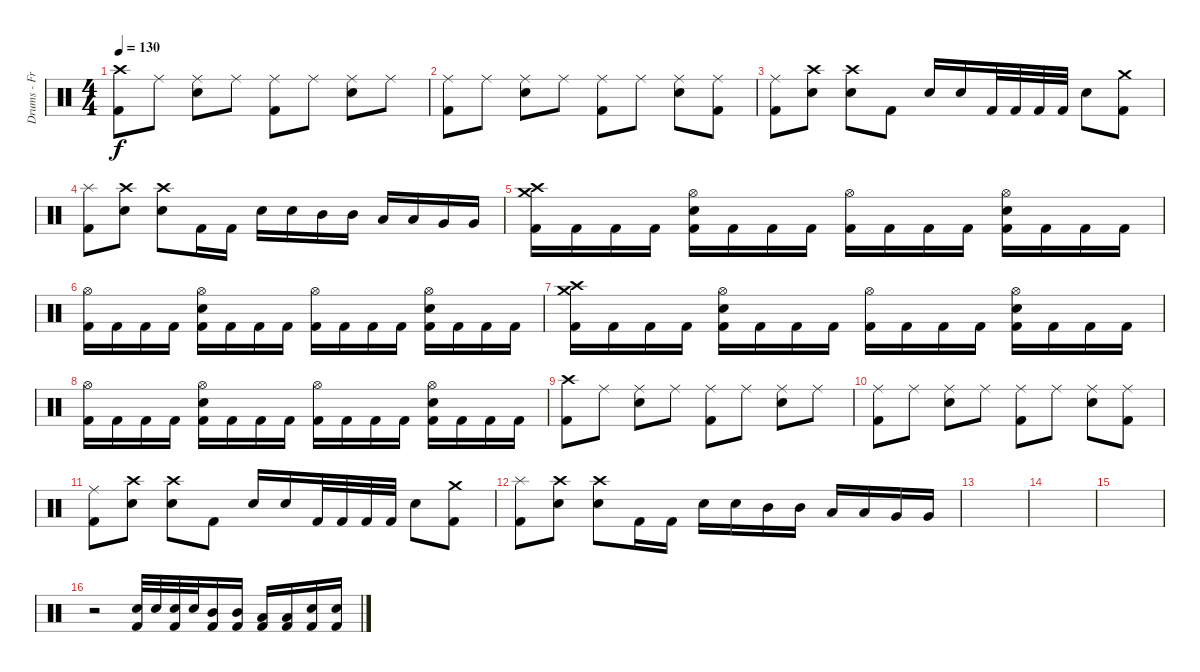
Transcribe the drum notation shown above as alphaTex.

\track ("Drums - Fredrik Andersson" "Drums - Fr") {instrument percussion}
\staff {score}
\articulation defaults
\ts (4 4)
\tempo 130
\clef neutral
\ks c
("Kick (hit) 2" "Crash high (hit)").8{dy f} "Ride (middle)".8 ("Snare (hit) 2" "Ride (middle)").8 "Ride (middle)".8 ("Kick (hit) 2" "Ride (middle)").8 "Ride (middle)".8 ("Snare (hit) 2" "Ride (middle)").8 "Ride (middle)".8 |
("Kick (hit) 2" "Ride (middle)").8 "Ride (middle)".8 ("Snare (hit) 2" "Ride (middle)").8 "Ride (middle)".8 ("Kick (hit) 2" "Ride (middle)").8 "Ride (middle)".8 ("Snare (hit) 2" "Ride (middle)").8 ("Kick (hit) 2" "Ride (middle)").8 |
("Ride (middle)" "Kick (hit) 2").8 ("Snare (hit) 2" "Crash high (hit)").8 ("Snare (hit) 2" "Crash high (hit)").8 "Kick (hit) 2".8 "Snare (hit) 2".16 "Snare (hit) 2".16 "Kick (hit) 2".32 "Kick (hit) 2".32 "Kick (hit) 2".32 "Kick (hit) 2".32 "Snare (hit) 2".8 ("Crash medium (hit)" "Kick (hit) 2").8 |
("Kick (hit) 2" "Splash (hit)").8 ("Snare (hit) 2" "Crash high (hit)").8 ("Snare (hit) 2" "Crash high (hit)").8 "Kick (hit) 2".16 "Kick (hit) 2".16 "Snare (hit) 2".16 "Snare (hit) 2".16 "Mid Tom (hit)".16 "Mid Tom (hit)".16 "Low Tom (hit)".16 "Low Tom (hit)".16 "Very Low Tom (hit)".16 "Very Low Tom (hit)".16 |
("Kick (hit) 2" "Crash high (hit)" "Crash medium (hit)").16 "Kick (hit) 2".16 "Kick (hit) 2".16 "Kick (hit) 2".16 ("Kick (hit) 2" "Snare (hit) 2" "Hi-Hat (open)").16 "Kick (hit) 2".16 "Kick (hit) 2".16 "Kick (hit) 2".16 ("Kick (hit) 2" "Hi-Hat (open)").16 "Kick (hit) 2".16 "Kick (hit) 2".16 "Kick (hit) 2".16 ("Kick (hit) 2" "Snare (hit) 2" "Hi-Hat (open)").16 "Kick (hit) 2".16 "Kick (hit) 2".16 "Kick (hit) 2".16 |
("Kick (hit) 2" "Hi-Hat (open)").16 "Kick (hit) 2".16 "Kick (hit) 2".16 "Kick (hit) 2".16 ("Kick (hit) 2" "Snare (hit) 2" "Hi-Hat (open)").16 "Kick (hit) 2".16 "Kick (hit) 2".16 "Kick (hit) 2".16 ("Kick (hit) 2" "Hi-Hat (open)").16 "Kick (hit) 2".16 "Kick (hit) 2".16 "Kick (hit) 2".16 ("Kick (hit) 2" "Snare (hit) 2" "Hi-Hat (open)").16 "Kick (hit) 2".16 "Kick (hit) 2".16 "Kick (hit) 2".16 |
("Kick (hit) 2" "Crash high (hit)" "Crash medium (hit)").16 "Kick (hit) 2".16 "Kick (hit) 2".16 "Kick (hit) 2".16 ("Kick (hit) 2" "Snare (hit) 2" "Hi-Hat (open)").16 "Kick (hit) 2".16 "Kick (hit) 2".16 "Kick (hit) 2".16 ("Kick (hit) 2" "Hi-Hat (open)").16 "Kick (hit) 2".16 "Kick (hit) 2".16 "Kick (hit) 2".16 ("Kick (hit) 2" "Snare (hit) 2" "Hi-Hat (open)").16 "Kick (hit) 2".16 "Kick (hit) 2".16 "Kick (hit) 2".16 |
("Kick (hit) 2" "Hi-Hat (open)").16 "Kick (hit) 2".16 "Kick (hit) 2".16 "Kick (hit) 2".16 ("Kick (hit) 2" "Snare (hit) 2" "Hi-Hat (open)").16 "Kick (hit) 2".16 "Kick (hit) 2".16 "Kick (hit) 2".16 ("Kick (hit) 2" "Hi-Hat (open)").16 "Kick (hit) 2".16 "Kick (hit) 2".16 "Kick (hit) 2".16 ("Kick (hit) 2" "Snare (hit) 2" "Hi-Hat (open)").16 "Kick (hit) 2".16 "Kick (hit) 2".16 "Kick (hit) 2".16 |
("Kick (hit) 2" "Crash high (hit)").8 "Ride (middle)".8 ("Snare (hit) 2" "Ride (middle)").8 "Ride (middle)".8 ("Kick (hit) 2" "Ride (middle)").8 "Ride (middle)".8 ("Snare (hit) 2" "Ride (middle)").8 "Ride (middle)".8 |
("Kick (hit) 2" "Ride (middle)").8 "Ride (middle)".8 ("Snare (hit) 2" "Ride (middle)").8 "Ride (middle)".8 ("Kick (hit) 2" "Ride (middle)").8 "Ride (middle)".8 ("Snare (hit) 2" "Ride (middle)").8 ("Kick (hit) 2" "Ride (middle)").8 |
("Ride (middle)" "Kick (hit) 2").8 ("Snare (hit) 2" "Crash high (hit)").8 ("Snare (hit) 2" "Crash high (hit)").8 "Kick (hit) 2".8 "Snare (hit) 2".16 "Snare (hit) 2".16 "Kick (hit) 2".32 "Kick (hit) 2".32 "Kick (hit) 2".32 "Kick (hit) 2".32 "Snare (hit) 2".8 ("Crash medium (hit)" "Kick (hit) 2").8 |
("Kick (hit) 2" "Splash (hit)").8 ("Snare (hit) 2" "Crash high (hit)").8 ("Snare (hit) 2" "Crash high (hit)").8 "Kick (hit) 2".16 "Kick (hit) 2".16 "Snare (hit) 2".16 "Snare (hit) 2".16 "Mid Tom (hit)".16 "Mid Tom (hit)".16 "Low Tom (hit)".16 "Low Tom (hit)".16 "Very Low Tom (hit)".16 "Very Low Tom (hit)".16 |
|
|
|
r.2 ("Snare (hit) 2" "Kick (hit) 2").32 "Snare (hit) 2".32 ("Snare (hit) 2" "Kick (hit) 2").32 "Snare (hit) 2".32 ("Mid Tom (hit)" "Kick (hit) 2").16 ("Mid Tom (hit)" "Kick (hit) 2").16 ("Low Tom (hit)" "Kick (hit) 2").16 ("Low Tom (hit)" "Kick (hit) 2").16 ("Snare (hit) 2" "Kick (hit) 2").16 ("Snare (hit) 2" "Kick (hit) 2").16
